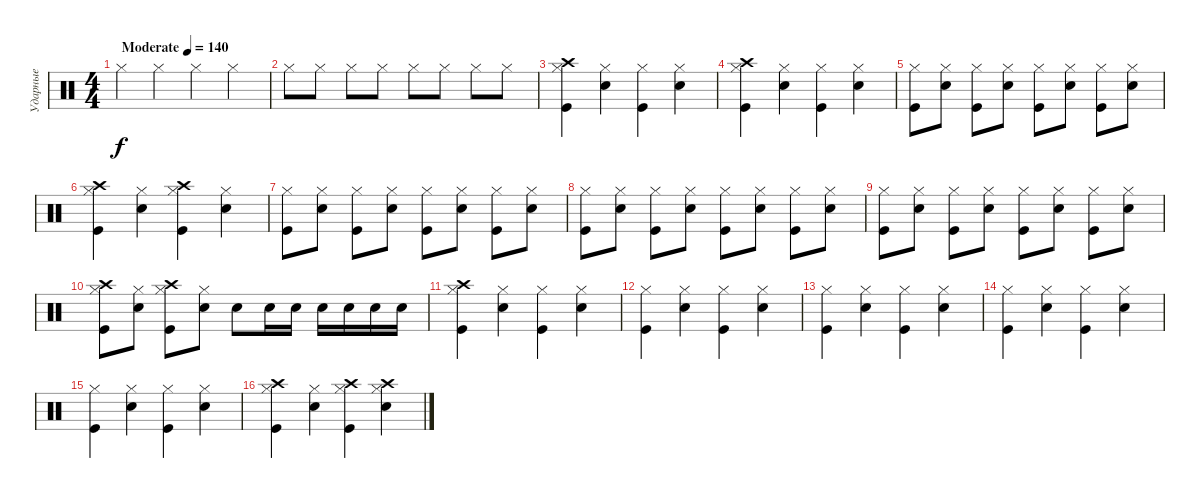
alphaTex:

\track ("Ударные" "Ударные") {instrument percussion}
\staff {score}
\articulation defaults
\ts (4 4)
\tempo (140 "Moderate")
\clef neutral
\ks c "Hi-Hat (closed)".4{dy f} "Hi-Hat (closed)".4 "Hi-Hat (closed)".4 "Hi-Hat (closed)".4
|
"Hi-Hat (closed)".8 "Hi-Hat (closed)".8 "Hi-Hat (closed)".8 "Hi-Hat (closed)".8 "Hi-Hat (closed)".8 "Hi-Hat (closed)".8 "Hi-Hat (closed)".8 "Hi-Hat (closed)".8 |
("Crash high (hit)" "Hi-Hat (closed)" "Kick (hit)").4 ("Hi-Hat (closed)" "Snare (hit) 2").4 ("Hi-Hat (closed)" "Kick (hit)").4 ("Hi-Hat (closed)" "Snare (hit) 2").4 |
("Crash high (hit)" "Hi-Hat (closed)" "Kick (hit)").4 ("Hi-Hat (closed)" "Snare (hit) 2").4 ("Hi-Hat (closed)" "Kick (hit)").4 ("Hi-Hat (closed)" "Snare (hit) 2").4 |
("Hi-Hat (closed)" "Kick (hit)").8 ("Hi-Hat (closed)" "Snare (hit) 2").8 ("Hi-Hat (closed)" "Kick (hit)").8 ("Hi-Hat (closed)" "Snare (hit) 2").8 ("Hi-Hat (closed)" "Kick (hit)").8 ("Hi-Hat (closed)" "Snare (hit) 2").8 ("Hi-Hat (closed)" "Kick (hit)").8 ("Hi-Hat (closed)" "Snare (hit) 2").8 |
("Crash high (hit)" "Hi-Hat (closed)" "Kick (hit)").4 ("Hi-Hat (closed)" "Snare (hit) 2").4 ("Crash high (hit)" "Hi-Hat (closed)" "Kick (hit)").4 ("Hi-Hat (closed)" "Snare (hit) 2").4 |
("Hi-Hat (closed)" "Kick (hit)").8 ("Hi-Hat (closed)" "Snare (hit) 2").8 ("Hi-Hat (closed)" "Kick (hit)").8 ("Hi-Hat (closed)" "Snare (hit) 2").8 ("Hi-Hat (closed)" "Kick (hit)").8 ("Hi-Hat (closed)" "Snare (hit) 2").8 ("Hi-Hat (closed)" "Kick (hit)").8 ("Hi-Hat (closed)" "Snare (hit) 2").8 |
("Hi-Hat (closed)" "Kick (hit)").8 ("Hi-Hat (closed)" "Snare (hit) 2").8 ("Hi-Hat (closed)" "Kick (hit)").8 ("Hi-Hat (closed)" "Snare (hit) 2").8 ("Hi-Hat (closed)" "Kick (hit)").8 ("Hi-Hat (closed)" "Snare (hit) 2").8 ("Hi-Hat (closed)" "Kick (hit)").8 ("Hi-Hat (closed)" "Snare (hit) 2").8 |
("Hi-Hat (closed)" "Kick (hit)").8 ("Hi-Hat (closed)" "Snare (hit) 2").8 ("Hi-Hat (closed)" "Kick (hit)").8 ("Hi-Hat (closed)" "Snare (hit) 2").8 ("Hi-Hat (closed)" "Kick (hit)").8 ("Hi-Hat (closed)" "Snare (hit) 2").8 ("Hi-Hat (closed)" "Kick (hit)").8 ("Hi-Hat (closed)" "Snare (hit) 2").8 |
("Crash high (hit)" "Hi-Hat (closed)" "Kick (hit)").8 ("Hi-Hat (closed)" "Snare (hit) 2").8 ("Crash high (hit)" "Hi-Hat (closed)" "Kick (hit)").8 ("Hi-Hat (closed)" "Snare (hit) 2").8 "Snare (hit) 2".8 "Snare (hit) 2".16 "Snare (hit) 2".16 "Snare (hit) 2".16 "Snare (hit) 2".16 "Snare (hit) 2".16 "Snare (hit) 2".16 |
("Crash high (hit)" "Hi-Hat (closed)" "Kick (hit)").4 ("Hi-Hat (closed)" "Snare (hit) 2").4 ("Hi-Hat (closed)" "Kick (hit)").4 ("Hi-Hat (closed)" "Snare (hit) 2").4 |
("Hi-Hat (closed)" "Kick (hit)").4 ("Hi-Hat (closed)" "Snare (hit) 2").4 ("Hi-Hat (closed)" "Kick (hit)").4 ("Hi-Hat (closed)" "Snare (hit) 2").4 |
("Hi-Hat (closed)" "Kick (hit)").4 ("Hi-Hat (closed)" "Snare (hit) 2").4 ("Hi-Hat (closed)" "Kick (hit)").4 ("Hi-Hat (closed)" "Snare (hit) 2").4 |
("Hi-Hat (closed)" "Kick (hit)").4 ("Hi-Hat (closed)" "Snare (hit) 2").4 ("Hi-Hat (closed)" "Kick (hit)").4 ("Hi-Hat (closed)" "Snare (hit) 2").4 |
("Hi-Hat (closed)" "Kick (hit)").4 ("Hi-Hat (closed)" "Snare (hit) 2").4 ("Hi-Hat (closed)" "Kick (hit)").4 ("Hi-Hat (closed)" "Snare (hit) 2").4 |
("Crash high (hit)" "Hi-Hat (closed)" "Kick (hit)").4 ("Hi-Hat (closed)" "Snare (hit) 2").4 ("Crash high (hit)" "Hi-Hat (closed)" "Kick (hit)").4 ("Crash high (hit)" "Hi-Hat (closed)" "Snare (hit) 2").4
